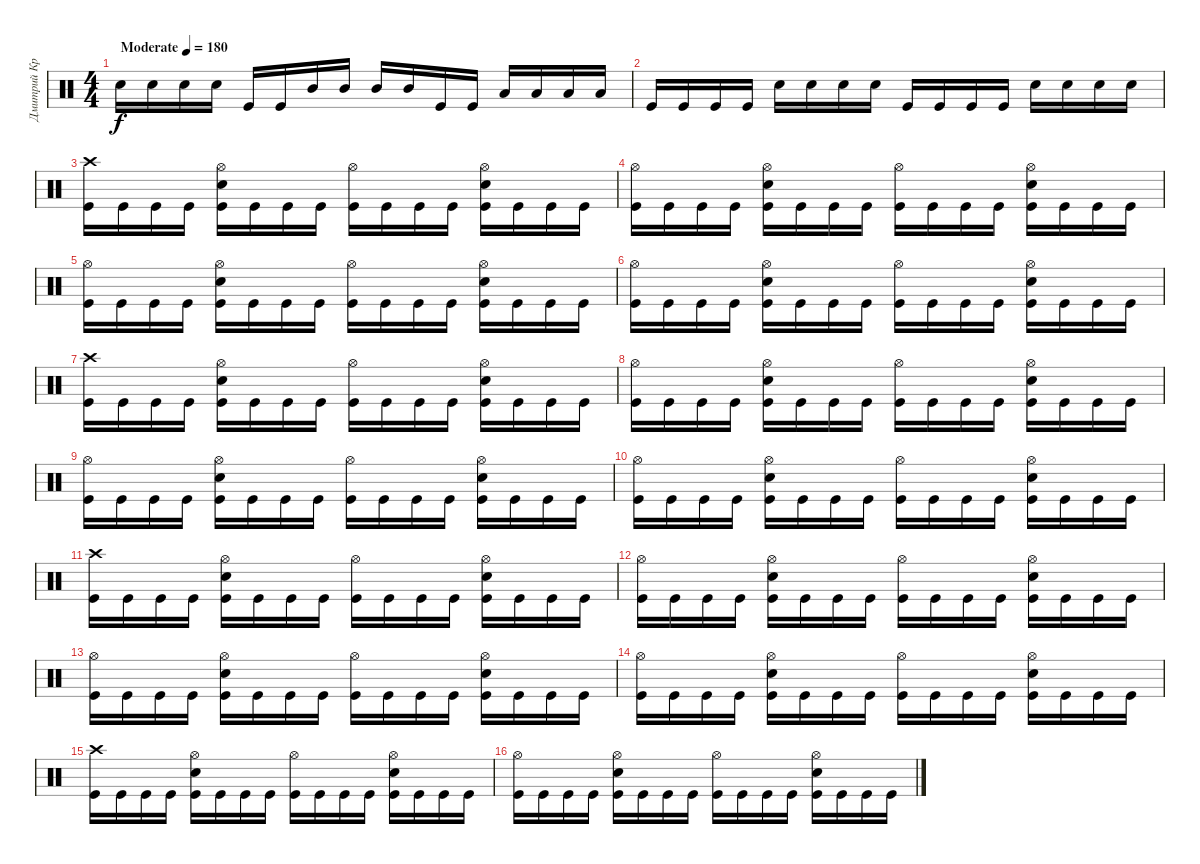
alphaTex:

\track ("Дмитрий Кривенков" "Дмитрий Кр") {instrument percussion}
\staff {score}
\articulation defaults
\ts (4 4)
\tempo (180 "Moderate")
\clef neutral
\ks c "Electric Snare (hit)".16{dy f} "Electric Snare (hit)".16 "Electric Snare (hit)".16 "Electric Snare (hit)".16 "Kick (hit)".16 "Kick (hit)".16 "Mid Tom (hit)".16 "Mid Tom (hit)".16 "Mid Tom (hit)".16 "Mid Tom (hit)".16 "Kick (hit)".16 "Kick (hit)".16 "Low Floor Tom (hit)".16 "Low Floor Tom (hit)".16 "Low Floor Tom (hit)".16 "Low Floor Tom (hit)".16
|
"Kick (hit)".16 "Kick (hit)".16 "Kick (hit)".16 "Kick (hit)".16 "Electric Snare (hit)".16 "Electric Snare (hit)".16 "Electric Snare (hit)".16 "Electric Snare (hit)".16 "Kick (hit)".16 "Kick (hit)".16 "Kick (hit)".16 "Kick (hit)".16 "Electric Snare (hit)".16 "Electric Snare (hit)".16 "Electric Snare (hit)".16 "Electric Snare (hit)".16 |
("Crash high (hit)" "Kick (hit)").16 "Kick (hit)".16 "Kick (hit)".16 "Kick (hit)".16 ("Hi-Hat (open)" "Electric Snare (hit)" "Kick (hit)").16 "Kick (hit)".16 "Kick (hit)".16 "Kick (hit)".16 ("Hi-Hat (open)" "Kick (hit)").16 "Kick (hit)".16 "Kick (hit)".16 "Kick (hit)".16 ("Hi-Hat (open)" "Electric Snare (hit)" "Kick (hit)").16 "Kick (hit)".16 "Kick (hit)".16 "Kick (hit)".16 |
("Hi-Hat (open)" "Kick (hit)").16 "Kick (hit)".16 "Kick (hit)".16 "Kick (hit)".16 ("Hi-Hat (open)" "Electric Snare (hit)" "Kick (hit)").16 "Kick (hit)".16 "Kick (hit)".16 "Kick (hit)".16 ("Hi-Hat (open)" "Kick (hit)").16 "Kick (hit)".16 "Kick (hit)".16 "Kick (hit)".16 ("Hi-Hat (open)" "Electric Snare (hit)" "Kick (hit)").16 "Kick (hit)".16 "Kick (hit)".16 "Kick (hit)".16 |
("Hi-Hat (open)" "Kick (hit)").16 "Kick (hit)".16 "Kick (hit)".16 "Kick (hit)".16 ("Hi-Hat (open)" "Electric Snare (hit)" "Kick (hit)").16 "Kick (hit)".16 "Kick (hit)".16 "Kick (hit)".16 ("Hi-Hat (open)" "Kick (hit)").16 "Kick (hit)".16 "Kick (hit)".16 "Kick (hit)".16 ("Hi-Hat (open)" "Electric Snare (hit)" "Kick (hit)").16 "Kick (hit)".16 "Kick (hit)".16 "Kick (hit)".16 |
("Hi-Hat (open)" "Kick (hit)").16 "Kick (hit)".16 "Kick (hit)".16 "Kick (hit)".16 ("Hi-Hat (open)" "Electric Snare (hit)" "Kick (hit)").16 "Kick (hit)".16 "Kick (hit)".16 "Kick (hit)".16 ("Hi-Hat (open)" "Kick (hit)").16 "Kick (hit)".16 "Kick (hit)".16 "Kick (hit)".16 ("Hi-Hat (open)" "Electric Snare (hit)" "Kick (hit)").16 "Kick (hit)".16 "Kick (hit)".16 "Kick (hit)".16 |
("Crash high (hit)" "Kick (hit)").16 "Kick (hit)".16 "Kick (hit)".16 "Kick (hit)".16 ("Hi-Hat (open)" "Electric Snare (hit)" "Kick (hit)").16 "Kick (hit)".16 "Kick (hit)".16 "Kick (hit)".16 ("Hi-Hat (open)" "Kick (hit)").16 "Kick (hit)".16 "Kick (hit)".16 "Kick (hit)".16 ("Hi-Hat (open)" "Electric Snare (hit)" "Kick (hit)").16 "Kick (hit)".16 "Kick (hit)".16 "Kick (hit)".16 |
("Hi-Hat (open)" "Kick (hit)").16 "Kick (hit)".16 "Kick (hit)".16 "Kick (hit)".16 ("Hi-Hat (open)" "Electric Snare (hit)" "Kick (hit)").16 "Kick (hit)".16 "Kick (hit)".16 "Kick (hit)".16 ("Hi-Hat (open)" "Kick (hit)").16 "Kick (hit)".16 "Kick (hit)".16 "Kick (hit)".16 ("Hi-Hat (open)" "Electric Snare (hit)" "Kick (hit)").16 "Kick (hit)".16 "Kick (hit)".16 "Kick (hit)".16 |
("Hi-Hat (open)" "Kick (hit)").16 "Kick (hit)".16 "Kick (hit)".16 "Kick (hit)".16 ("Hi-Hat (open)" "Electric Snare (hit)" "Kick (hit)").16 "Kick (hit)".16 "Kick (hit)".16 "Kick (hit)".16 ("Hi-Hat (open)" "Kick (hit)").16 "Kick (hit)".16 "Kick (hit)".16 "Kick (hit)".16 ("Hi-Hat (open)" "Electric Snare (hit)" "Kick (hit)").16 "Kick (hit)".16 "Kick (hit)".16 "Kick (hit)".16 |
("Hi-Hat (open)" "Kick (hit)").16 "Kick (hit)".16 "Kick (hit)".16 "Kick (hit)".16 ("Hi-Hat (open)" "Electric Snare (hit)" "Kick (hit)").16 "Kick (hit)".16 "Kick (hit)".16 "Kick (hit)".16 ("Hi-Hat (open)" "Kick (hit)").16 "Kick (hit)".16 "Kick (hit)".16 "Kick (hit)".16 ("Hi-Hat (open)" "Electric Snare (hit)" "Kick (hit)").16 "Kick (hit)".16 "Kick (hit)".16 "Kick (hit)".16 |
("Crash high (hit)" "Kick (hit)").16 "Kick (hit)".16 "Kick (hit)".16 "Kick (hit)".16 ("Hi-Hat (open)" "Electric Snare (hit)" "Kick (hit)").16 "Kick (hit)".16 "Kick (hit)".16 "Kick (hit)".16 ("Hi-Hat (open)" "Kick (hit)").16 "Kick (hit)".16 "Kick (hit)".16 "Kick (hit)".16 ("Hi-Hat (open)" "Electric Snare (hit)" "Kick (hit)").16 "Kick (hit)".16 "Kick (hit)".16 "Kick (hit)".16 |
("Hi-Hat (open)" "Kick (hit)").16 "Kick (hit)".16 "Kick (hit)".16 "Kick (hit)".16 ("Hi-Hat (open)" "Electric Snare (hit)" "Kick (hit)").16 "Kick (hit)".16 "Kick (hit)".16 "Kick (hit)".16 ("Hi-Hat (open)" "Kick (hit)").16 "Kick (hit)".16 "Kick (hit)".16 "Kick (hit)".16 ("Hi-Hat (open)" "Electric Snare (hit)" "Kick (hit)").16 "Kick (hit)".16 "Kick (hit)".16 "Kick (hit)".16 |
("Hi-Hat (open)" "Kick (hit)").16 "Kick (hit)".16 "Kick (hit)".16 "Kick (hit)".16 ("Hi-Hat (open)" "Electric Snare (hit)" "Kick (hit)").16 "Kick (hit)".16 "Kick (hit)".16 "Kick (hit)".16 ("Hi-Hat (open)" "Kick (hit)").16 "Kick (hit)".16 "Kick (hit)".16 "Kick (hit)".16 ("Hi-Hat (open)" "Electric Snare (hit)" "Kick (hit)").16 "Kick (hit)".16 "Kick (hit)".16 "Kick (hit)".16 |
("Hi-Hat (open)" "Kick (hit)").16 "Kick (hit)".16 "Kick (hit)".16 "Kick (hit)".16 ("Hi-Hat (open)" "Electric Snare (hit)" "Kick (hit)").16 "Kick (hit)".16 "Kick (hit)".16 "Kick (hit)".16 ("Hi-Hat (open)" "Kick (hit)").16 "Kick (hit)".16 "Kick (hit)".16 "Kick (hit)".16 ("Hi-Hat (open)" "Electric Snare (hit)" "Kick (hit)").16 "Kick (hit)".16 "Kick (hit)".16 "Kick (hit)".16 |
("Crash high (hit)" "Kick (hit)").16 "Kick (hit)".16 "Kick (hit)".16 "Kick (hit)".16 ("Hi-Hat (open)" "Electric Snare (hit)" "Kick (hit)").16 "Kick (hit)".16 "Kick (hit)".16 "Kick (hit)".16 ("Hi-Hat (open)" "Kick (hit)").16 "Kick (hit)".16 "Kick (hit)".16 "Kick (hit)".16 ("Hi-Hat (open)" "Electric Snare (hit)" "Kick (hit)").16 "Kick (hit)".16 "Kick (hit)".16 "Kick (hit)".16 |
("Hi-Hat (open)" "Kick (hit)").16 "Kick (hit)".16 "Kick (hit)".16 "Kick (hit)".16 ("Hi-Hat (open)" "Electric Snare (hit)" "Kick (hit)").16 "Kick (hit)".16 "Kick (hit)".16 "Kick (hit)".16 ("Hi-Hat (open)" "Kick (hit)").16 "Kick (hit)".16 "Kick (hit)".16 "Kick (hit)".16 ("Hi-Hat (open)" "Electric Snare (hit)" "Kick (hit)").16 "Kick (hit)".16 "Kick (hit)".16 "Kick (hit)".16
